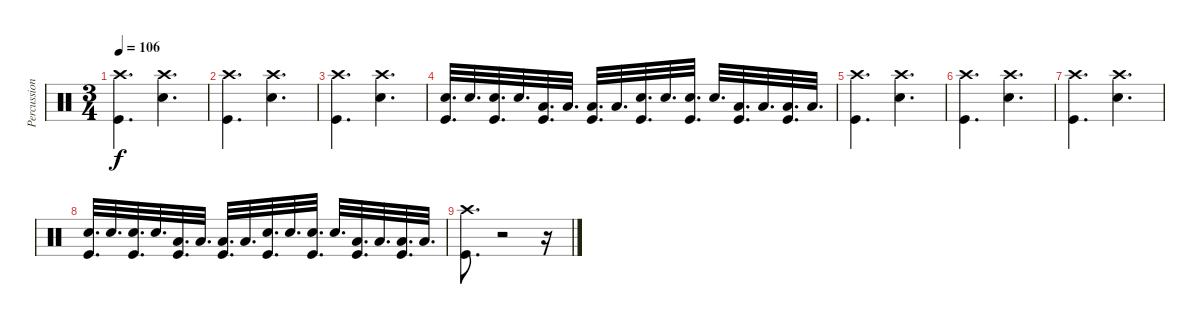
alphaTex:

\track ("Percussion" "Percussion") {instrument percussion}
\staff {score}
\articulation defaults
\ts (3 4)
\tempo 106
\clef neutral
\ks c
("Crash high (hit)" "Kick (hit)").4{d dy f} ("Crash high (hit)" "Electric Snare (hit)").4{d} |
("Crash high (hit)" "Kick (hit)").4{d} ("Crash high (hit)" "Electric Snare (hit)").4{d} |
("Crash high (hit)" "Kick (hit)").4{d} ("Crash high (hit)" "Electric Snare (hit)").4{d} |
("Electric Snare (hit)" "Kick (hit)").32{d} "Electric Snare (hit)".32{d} ("Electric Snare (hit)" "Kick (hit)").32{d} "Electric Snare (hit)".32{d} ("Low Tom (hit)" "Kick (hit)").32{d} "Low Tom (hit)".32{d} ("Low Tom (hit)" "Kick (hit)").32{d} "Low Tom (hit)".32{d} ("Electric Snare (hit)" "Kick (hit)").32{d} "Electric Snare (hit)".32{d} ("Electric Snare (hit)" "Kick (hit)").32{d} "Electric Snare (hit)".32{d} ("Low Tom (hit)" "Kick (hit)").32{d} "Low Tom (hit)".32{d} ("Low Tom (hit)" "Kick (hit)").32{d} "Low Tom (hit)".32{d} |
("Crash high (hit)" "Kick (hit)").4{d} ("Crash high (hit)" "Electric Snare (hit)").4{d} |
("Crash high (hit)" "Kick (hit)").4{d} ("Crash high (hit)" "Electric Snare (hit)").4{d} |
("Crash high (hit)" "Kick (hit)").4{d} ("Crash high (hit)" "Electric Snare (hit)").4{d} |
("Electric Snare (hit)" "Kick (hit)").32{d} "Electric Snare (hit)".32{d} ("Electric Snare (hit)" "Kick (hit)").32{d} "Electric Snare (hit)".32{d} ("Low Tom (hit)" "Kick (hit)").32{d} "Low Tom (hit)".32{d} ("Low Tom (hit)" "Kick (hit)").32{d} "Low Tom (hit)".32{d} ("Electric Snare (hit)" "Kick (hit)").32{d} "Electric Snare (hit)".32{d} ("Electric Snare (hit)" "Kick (hit)").32{d} "Electric Snare (hit)".32{d} ("Low Tom (hit)" "Kick (hit)").32{d} "Low Tom (hit)".32{d} ("Low Tom (hit)" "Kick (hit)").32{d} "Low Tom (hit)".32{d} |
("Crash high (hit)" "Kick (hit)").8{d} r.2 r.16
